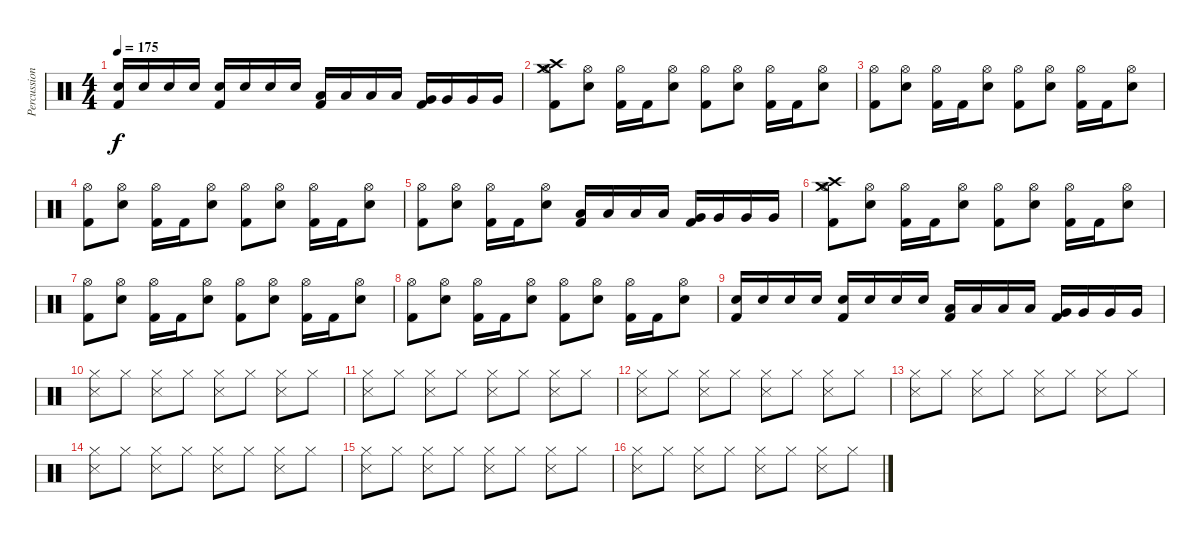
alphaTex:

\track ("Percussions" "Percussion") {instrument percussion}
\staff {score}
\articulation defaults
\ts (4 4)
\tempo 175
\clef neutral
\ks c
("Electric Snare (hit)" "Kick (hit) 2").16{dy f} "Electric Snare (hit)".16 "Electric Snare (hit)".16 "Electric Snare (hit)".16 ("Electric Snare (hit)" "Kick (hit) 2").16 "Electric Snare (hit)".16 "Electric Snare (hit)".16 "Electric Snare (hit)".16 ("Low Tom (hit)" "Kick (hit) 2").16 "Low Tom (hit)".16 "Low Tom (hit)".16 "Low Tom (hit)".16 ("Very Low Tom (hit)" "Kick (hit) 2").16 "Very Low Tom (hit)".16 "Very Low Tom (hit)".16 "Very Low Tom (hit)".16 |
("Hi-Hat (open)" "Crash high (hit)" "Crash medium (hit)" "Kick (hit) 2").8 ("Hi-Hat (open)" "Electric Snare (hit)").8 ("Hi-Hat (open)" "Kick (hit) 2").16 "Kick (hit) 2".16 ("Hi-Hat (open)" "Electric Snare (hit)").8 ("Hi-Hat (open)" "Kick (hit) 2").8 ("Hi-Hat (open)" "Electric Snare (hit)").8 ("Hi-Hat (open)" "Kick (hit) 2").16 "Kick (hit) 2".16 ("Hi-Hat (open)" "Electric Snare (hit)").8 |
("Hi-Hat (open)" "Kick (hit) 2").8 ("Hi-Hat (open)" "Electric Snare (hit)").8 ("Hi-Hat (open)" "Kick (hit) 2").16 "Kick (hit) 2".16 ("Hi-Hat (open)" "Electric Snare (hit)").8 ("Hi-Hat (open)" "Kick (hit) 2").8 ("Hi-Hat (open)" "Electric Snare (hit)").8 ("Hi-Hat (open)" "Kick (hit) 2").16 "Kick (hit) 2".16 ("Hi-Hat (open)" "Electric Snare (hit)").8 |
("Hi-Hat (open)" "Kick (hit) 2").8 ("Hi-Hat (open)" "Electric Snare (hit)").8 ("Hi-Hat (open)" "Kick (hit) 2").16 "Kick (hit) 2".16 ("Hi-Hat (open)" "Electric Snare (hit)").8 ("Hi-Hat (open)" "Kick (hit) 2").8 ("Hi-Hat (open)" "Electric Snare (hit)").8 ("Hi-Hat (open)" "Kick (hit) 2").16 "Kick (hit) 2".16 ("Hi-Hat (open)" "Electric Snare (hit)").8 |
("Hi-Hat (open)" "Kick (hit) 2").8 ("Hi-Hat (open)" "Electric Snare (hit)").8 ("Hi-Hat (open)" "Kick (hit) 2").16 "Kick (hit) 2".16 ("Hi-Hat (open)" "Electric Snare (hit)").8 ("Low Tom (hit)" "Kick (hit) 2").16 "Low Tom (hit)".16 "Low Tom (hit)".16 "Low Tom (hit)".16 ("Very Low Tom (hit)" "Kick (hit) 2").16 "Very Low Tom (hit)".16 "Very Low Tom (hit)".16 "Very Low Tom (hit)".16 |
("Hi-Hat (open)" "Crash high (hit)" "Crash medium (hit)" "Kick (hit) 2").8 ("Hi-Hat (open)" "Electric Snare (hit)").8 ("Hi-Hat (open)" "Kick (hit) 2").16 "Kick (hit) 2".16 ("Hi-Hat (open)" "Electric Snare (hit)").8 ("Hi-Hat (open)" "Kick (hit) 2").8 ("Hi-Hat (open)" "Electric Snare (hit)").8 ("Hi-Hat (open)" "Kick (hit) 2").16 "Kick (hit) 2".16 ("Hi-Hat (open)" "Electric Snare (hit)").8 |
("Hi-Hat (open)" "Kick (hit) 2").8 ("Hi-Hat (open)" "Electric Snare (hit)").8 ("Hi-Hat (open)" "Kick (hit) 2").16 "Kick (hit) 2".16 ("Hi-Hat (open)" "Electric Snare (hit)").8 ("Hi-Hat (open)" "Kick (hit) 2").8 ("Hi-Hat (open)" "Electric Snare (hit)").8 ("Hi-Hat (open)" "Kick (hit) 2").16 "Kick (hit) 2".16 ("Hi-Hat (open)" "Electric Snare (hit)").8 |
("Hi-Hat (open)" "Kick (hit) 2").8 ("Hi-Hat (open)" "Electric Snare (hit)").8 ("Hi-Hat (open)" "Kick (hit) 2").16 "Kick (hit) 2".16 ("Hi-Hat (open)" "Electric Snare (hit)").8 ("Hi-Hat (open)" "Kick (hit) 2").8 ("Hi-Hat (open)" "Electric Snare (hit)").8 ("Hi-Hat (open)" "Kick (hit) 2").16 "Kick (hit) 2".16 ("Hi-Hat (open)" "Electric Snare (hit)").8 |
("Electric Snare (hit)" "Kick (hit) 2").16 "Electric Snare (hit)".16 "Electric Snare (hit)".16 "Electric Snare (hit)".16 ("Electric Snare (hit)" "Kick (hit) 2").16 "Electric Snare (hit)".16 "Electric Snare (hit)".16 "Electric Snare (hit)".16 ("Low Tom (hit)" "Kick (hit) 2").16 "Low Tom (hit)".16 "Low Tom (hit)".16 "Low Tom (hit)".16 ("Very Low Tom (hit)" "Kick (hit) 2").16 "Very Low Tom (hit)".16 "Very Low Tom (hit)".16 "Very Low Tom (hit)".16 |
("Hi-Hat (closed)" "Snare (side stick) 3").8 "Hi-Hat (closed)".8 ("Hi-Hat (closed)" "Snare (side stick) 3").8 "Hi-Hat (closed)".8 ("Hi-Hat (closed)" "Snare (side stick) 3").8 "Hi-Hat (closed)".8 ("Hi-Hat (closed)" "Snare (side stick) 3").8 "Hi-Hat (closed)".8 |
("Hi-Hat (closed)" "Snare (side stick) 3").8 "Hi-Hat (closed)".8 ("Hi-Hat (closed)" "Snare (side stick) 3").8 "Hi-Hat (closed)".8 ("Hi-Hat (closed)" "Snare (side stick) 3").8 "Hi-Hat (closed)".8 ("Hi-Hat (closed)" "Snare (side stick) 3").8 "Hi-Hat (closed)".8 |
("Hi-Hat (closed)" "Snare (side stick) 3").8 "Hi-Hat (closed)".8 ("Hi-Hat (closed)" "Snare (side stick) 3").8 "Hi-Hat (closed)".8 ("Hi-Hat (closed)" "Snare (side stick) 3").8 "Hi-Hat (closed)".8 ("Hi-Hat (closed)" "Snare (side stick) 3").8 "Hi-Hat (closed)".8 |
("Hi-Hat (closed)" "Snare (side stick) 3").8 "Hi-Hat (closed)".8 ("Hi-Hat (closed)" "Snare (side stick) 3").8 "Hi-Hat (closed)".8 ("Hi-Hat (closed)" "Snare (side stick) 3").8 "Hi-Hat (closed)".8 ("Hi-Hat (closed)" "Snare (side stick) 3").8 "Hi-Hat (closed)".8 |
("Hi-Hat (closed)" "Snare (side stick) 3").8 "Hi-Hat (closed)".8 ("Hi-Hat (closed)" "Snare (side stick) 3").8 "Hi-Hat (closed)".8 ("Hi-Hat (closed)" "Snare (side stick) 3").8 "Hi-Hat (closed)".8 ("Hi-Hat (closed)" "Snare (side stick) 3").8 "Hi-Hat (closed)".8 |
("Hi-Hat (closed)" "Snare (side stick) 3").8 "Hi-Hat (closed)".8 ("Hi-Hat (closed)" "Snare (side stick) 3").8 "Hi-Hat (closed)".8 ("Hi-Hat (closed)" "Snare (side stick) 3").8 "Hi-Hat (closed)".8 ("Hi-Hat (closed)" "Snare (side stick) 3").8 "Hi-Hat (closed)".8 |
("Hi-Hat (closed)" "Snare (side stick) 3").8 "Hi-Hat (closed)".8 ("Hi-Hat (closed)" "Snare (side stick) 3").8 "Hi-Hat (closed)".8 ("Hi-Hat (closed)" "Snare (side stick) 3").8 "Hi-Hat (closed)".8 ("Hi-Hat (closed)" "Snare (side stick) 3").8 "Hi-Hat (closed)".8
